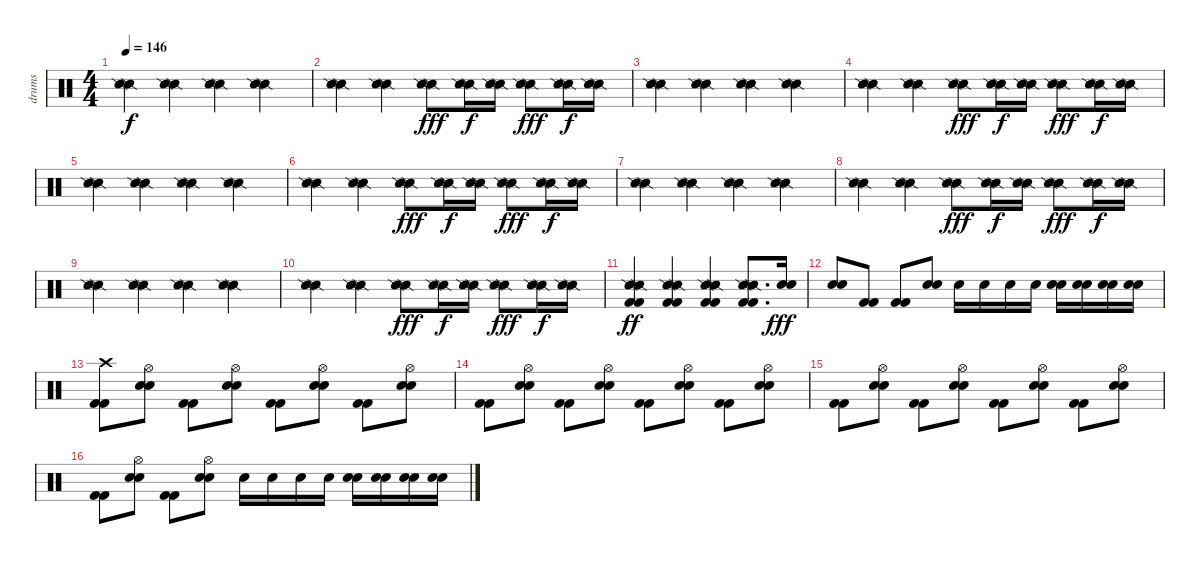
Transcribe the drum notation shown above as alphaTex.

\track ("drums" "drums") {instrument percussion}
\staff {score}
\articulation defaults
\ts (4 4)
\tempo 146
\clef neutral
\ks c
("Snare (side stick) 2" "Snare (side stick) 2").4{dy f} ("Snare (side stick) 2" "Snare (side stick) 2").4 ("Snare (side stick) 2" "Snare (side stick) 2").4 ("Snare (side stick) 2" "Snare (side stick) 2").4 |
("Snare (side stick) 2" "Snare (side stick) 2").4 ("Snare (side stick) 2" "Snare (side stick) 2").4 ("Snare (side stick) 2" "Snare (side stick) 2").8{dy fff} ("Snare (side stick) 2" "Snare (side stick) 2").16{dy f} ("Snare (side stick) 2" "Snare (side stick) 2").16 ("Snare (side stick) 2" "Snare (side stick) 2").8{dy fff} ("Snare (side stick) 2" "Snare (side stick) 2").16{dy f} ("Snare (side stick) 2" "Snare (side stick) 2").16 |
("Snare (side stick) 2" "Snare (side stick) 2").4 ("Snare (side stick) 2" "Snare (side stick) 2").4 ("Snare (side stick) 2" "Snare (side stick) 2").4 ("Snare (side stick) 2" "Snare (side stick) 2").4 |
("Snare (side stick) 2" "Snare (side stick) 2").4 ("Snare (side stick) 2" "Snare (side stick) 2").4 ("Snare (side stick) 2" "Snare (side stick) 2").8{dy fff} ("Snare (side stick) 2" "Snare (side stick) 2").16{dy f} ("Snare (side stick) 2" "Snare (side stick) 2").16 ("Snare (side stick) 2" "Snare (side stick) 2").8{dy fff} ("Snare (side stick) 2" "Snare (side stick) 2").16{dy f} ("Snare (side stick) 2" "Snare (side stick) 2").16 |
("Snare (side stick) 2" "Snare (side stick) 2").4 ("Snare (side stick) 2" "Snare (side stick) 2").4 ("Snare (side stick) 2" "Snare (side stick) 2").4 ("Snare (side stick) 2" "Snare (side stick) 2").4 |
("Snare (side stick) 2" "Snare (side stick) 2").4 ("Snare (side stick) 2" "Snare (side stick) 2").4 ("Snare (side stick) 2" "Snare (side stick) 2").8{dy fff} ("Snare (side stick) 2" "Snare (side stick) 2").16{dy f} ("Snare (side stick) 2" "Snare (side stick) 2").16 ("Snare (side stick) 2" "Snare (side stick) 2").8{dy fff} ("Snare (side stick) 2" "Snare (side stick) 2").16{dy f} ("Snare (side stick) 2" "Snare (side stick) 2").16 |
("Snare (side stick) 2" "Snare (side stick) 2").4 ("Snare (side stick) 2" "Snare (side stick) 2").4 ("Snare (side stick) 2" "Snare (side stick) 2").4 ("Snare (side stick) 2" "Snare (side stick) 2").4 |
("Snare (side stick) 2" "Snare (side stick) 2").4 ("Snare (side stick) 2" "Snare (side stick) 2").4 ("Snare (side stick) 2" "Snare (side stick) 2").8{dy fff} ("Snare (side stick) 2" "Snare (side stick) 2").16{dy f} ("Snare (side stick) 2" "Snare (side stick) 2").16 ("Snare (side stick) 2" "Snare (side stick) 2").8{dy fff} ("Snare (side stick) 2" "Snare (side stick) 2").16{dy f} ("Snare (side stick) 2" "Snare (side stick) 2").16 |
("Snare (side stick) 2" "Snare (side stick) 2").4 ("Snare (side stick) 2" "Snare (side stick) 2").4 ("Snare (side stick) 2" "Snare (side stick) 2").4 ("Snare (side stick) 2" "Snare (side stick) 2").4 |
("Snare (side stick) 2" "Snare (side stick) 2").4 ("Snare (side stick) 2" "Snare (side stick) 2").4 ("Snare (side stick) 2" "Snare (side stick) 2").8{dy fff} ("Snare (side stick) 2" "Snare (side stick) 2").16{dy f} ("Snare (side stick) 2" "Snare (side stick) 2").16 ("Snare (side stick) 2" "Snare (side stick) 2").8{dy fff} ("Snare (side stick) 2" "Snare (side stick) 2").16{dy f} ("Snare (side stick) 2" "Snare (side stick) 2").16 |
("Snare (side stick) 2" "Snare (side stick) 2" "Kick (hit) 2" "Kick (hit) 2").4{dy ff} ("Snare (side stick) 2" "Snare (side stick) 2" "Kick (hit) 2" "Kick (hit) 2").4 ("Snare (side stick) 2" "Snare (side stick) 2" "Kick (hit) 2" "Kick (hit) 2").4 ("Snare (side stick) 2" "Snare (side stick) 2" "Kick (hit) 2" "Kick (hit) 2").8{d} ("Electric Snare (hit)" "Electric Snare (hit)").16{dy fff} |
("Electric Snare (hit)" "Electric Snare (hit)").8 ("Kick (hit) 2" "Kick (hit) 2").8 ("Kick (hit) 2" "Kick (hit) 2").8 ("Electric Snare (hit)" "Electric Snare (hit)").8 "Electric Snare (hit)".16 "Electric Snare (hit)".16 "Electric Snare (hit)".16 "Electric Snare (hit)".16 ("Electric Snare (hit)" "Electric Snare (hit)").16 ("Electric Snare (hit)" "Electric Snare (hit)").16 ("Electric Snare (hit)" "Electric Snare (hit)").16 ("Electric Snare (hit)" "Electric Snare (hit)").16 |
("Crash high (hit)" "Kick (hit) 2" "Kick (hit) 2").8 ("Hi-Hat (open)" "Electric Snare (hit)" "Electric Snare (hit)").8 ("Kick (hit) 2" "Kick (hit) 2").8 ("Hi-Hat (open)" "Electric Snare (hit)" "Electric Snare (hit)").8 ("Kick (hit) 2" "Kick (hit) 2").8 ("Hi-Hat (open)" "Electric Snare (hit)" "Electric Snare (hit)").8 ("Kick (hit) 2" "Kick (hit) 2").8 ("Hi-Hat (open)" "Electric Snare (hit)" "Electric Snare (hit)").8 |
("Kick (hit) 2" "Kick (hit) 2").8 ("Hi-Hat (open)" "Electric Snare (hit)" "Electric Snare (hit)").8 ("Kick (hit) 2" "Kick (hit) 2").8 ("Hi-Hat (open)" "Electric Snare (hit)" "Electric Snare (hit)").8 ("Kick (hit) 2" "Kick (hit) 2").8 ("Hi-Hat (open)" "Electric Snare (hit)" "Electric Snare (hit)").8 ("Kick (hit) 2" "Kick (hit) 2").8 ("Hi-Hat (open)" "Electric Snare (hit)" "Electric Snare (hit)").8 |
("Kick (hit) 2" "Kick (hit) 2").8 ("Hi-Hat (open)" "Electric Snare (hit)" "Electric Snare (hit)").8 ("Kick (hit) 2" "Kick (hit) 2").8 ("Hi-Hat (open)" "Electric Snare (hit)" "Electric Snare (hit)").8 ("Kick (hit) 2" "Kick (hit) 2").8 ("Hi-Hat (open)" "Electric Snare (hit)" "Electric Snare (hit)").8 ("Kick (hit) 2" "Kick (hit) 2").8 ("Hi-Hat (open)" "Electric Snare (hit)" "Electric Snare (hit)").8 |
("Kick (hit) 2" "Kick (hit) 2").8 ("Hi-Hat (open)" "Electric Snare (hit)" "Electric Snare (hit)").8 ("Kick (hit) 2" "Kick (hit) 2").8 ("Hi-Hat (open)" "Electric Snare (hit)" "Electric Snare (hit)").8 "Electric Snare (hit)".16 "Electric Snare (hit)".16 "Electric Snare (hit)".16 "Electric Snare (hit)".16 ("Electric Snare (hit)" "Electric Snare (hit)").16 ("Electric Snare (hit)" "Electric Snare (hit)").16 ("Electric Snare (hit)" "Electric Snare (hit)").16 ("Electric Snare (hit)" "Electric Snare (hit)").16
